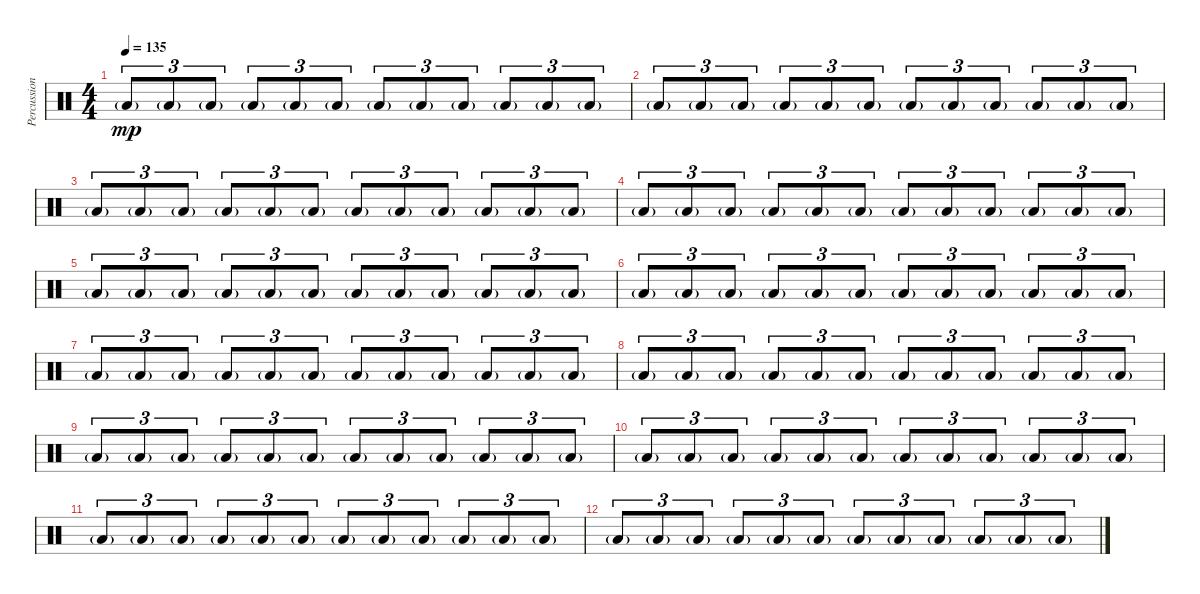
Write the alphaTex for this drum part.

\track ("Percussion" "Percussion") {instrument percussion}
\staff {score}
\articulation defaults
\ts (4 4)
\tempo 135
\clef neutral
\ks c "Low Floor Tom (hit)"{g}.8{tu (3 2) dy mp volume 12} "Low Floor Tom (hit)"{g}.8{tu (3 2)} "Low Floor Tom (hit)"{g}.8{tu (3 2)} "Low Floor Tom (hit)"{g}.8{tu (3 2)} "Low Floor Tom (hit)"{g}.8{tu (3 2)} "Low Floor Tom (hit)"{g}.8{tu (3 2)} "Low Floor Tom (hit)"{g}.8{tu (3 2)} "Low Floor Tom (hit)"{g}.8{tu (3 2)} "Low Floor Tom (hit)"{g}.8{tu (3 2)} "Low Floor Tom (hit)"{g}.8{tu (3 2)} "Low Floor Tom (hit)"{g}.8{tu (3 2)} "Low Floor Tom (hit)"{g}.8{tu (3 2)}
|
"Low Floor Tom (hit)"{g}.8{tu (3 2)} "Low Floor Tom (hit)"{g}.8{tu (3 2)} "Low Floor Tom (hit)"{g}.8{tu (3 2)} "Low Floor Tom (hit)"{g}.8{tu (3 2)} "Low Floor Tom (hit)"{g}.8{tu (3 2)} "Low Floor Tom (hit)"{g}.8{tu (3 2)} "Low Floor Tom (hit)"{g}.8{tu (3 2)} "Low Floor Tom (hit)"{g}.8{tu (3 2)} "Low Floor Tom (hit)"{g}.8{tu (3 2)} "Low Floor Tom (hit)"{g}.8{tu (3 2)} "Low Floor Tom (hit)"{g}.8{tu (3 2)} "Low Floor Tom (hit)"{g}.8{tu (3 2)} |
"Low Floor Tom (hit)"{g}.8{tu (3 2) volume 10} "Low Floor Tom (hit)"{g}.8{tu (3 2)} "Low Floor Tom (hit)"{g}.8{tu (3 2)} "Low Floor Tom (hit)"{g}.8{tu (3 2)} "Low Floor Tom (hit)"{g}.8{tu (3 2)} "Low Floor Tom (hit)"{g}.8{tu (3 2)} "Low Floor Tom (hit)"{g}.8{tu (3 2)} "Low Floor Tom (hit)"{g}.8{tu (3 2)} "Low Floor Tom (hit)"{g}.8{tu (3 2)} "Low Floor Tom (hit)"{g}.8{tu (3 2)} "Low Floor Tom (hit)"{g}.8{tu (3 2)} "Low Floor Tom (hit)"{g}.8{tu (3 2)} |
"Low Floor Tom (hit)"{g}.8{tu (3 2)} "Low Floor Tom (hit)"{g}.8{tu (3 2)} "Low Floor Tom (hit)"{g}.8{tu (3 2)} "Low Floor Tom (hit)"{g}.8{tu (3 2)} "Low Floor Tom (hit)"{g}.8{tu (3 2)} "Low Floor Tom (hit)"{g}.8{tu (3 2)} "Low Floor Tom (hit)"{g}.8{tu (3 2)} "Low Floor Tom (hit)"{g}.8{tu (3 2)} "Low Floor Tom (hit)"{g}.8{tu (3 2)} "Low Floor Tom (hit)"{g}.8{tu (3 2)} "Low Floor Tom (hit)"{g}.8{tu (3 2)} "Low Floor Tom (hit)"{g}.8{tu (3 2)} |
"Low Floor Tom (hit)"{g}.8{tu (3 2) volume 8} "Low Floor Tom (hit)"{g}.8{tu (3 2)} "Low Floor Tom (hit)"{g}.8{tu (3 2)} "Low Floor Tom (hit)"{g}.8{tu (3 2)} "Low Floor Tom (hit)"{g}.8{tu (3 2)} "Low Floor Tom (hit)"{g}.8{tu (3 2)} "Low Floor Tom (hit)"{g}.8{tu (3 2)} "Low Floor Tom (hit)"{g}.8{tu (3 2)} "Low Floor Tom (hit)"{g}.8{tu (3 2)} "Low Floor Tom (hit)"{g}.8{tu (3 2)} "Low Floor Tom (hit)"{g}.8{tu (3 2)} "Low Floor Tom (hit)"{g}.8{tu (3 2)} |
"Low Floor Tom (hit)"{g}.8{tu (3 2)} "Low Floor Tom (hit)"{g}.8{tu (3 2)} "Low Floor Tom (hit)"{g}.8{tu (3 2)} "Low Floor Tom (hit)"{g}.8{tu (3 2)} "Low Floor Tom (hit)"{g}.8{tu (3 2)} "Low Floor Tom (hit)"{g}.8{tu (3 2)} "Low Floor Tom (hit)"{g}.8{tu (3 2)} "Low Floor Tom (hit)"{g}.8{tu (3 2)} "Low Floor Tom (hit)"{g}.8{tu (3 2)} "Low Floor Tom (hit)"{g}.8{tu (3 2)} "Low Floor Tom (hit)"{g}.8{tu (3 2)} "Low Floor Tom (hit)"{g}.8{tu (3 2)} |
"Low Floor Tom (hit)"{g}.8{tu (3 2) volume 6} "Low Floor Tom (hit)"{g}.8{tu (3 2)} "Low Floor Tom (hit)"{g}.8{tu (3 2)} "Low Floor Tom (hit)"{g}.8{tu (3 2)} "Low Floor Tom (hit)"{g}.8{tu (3 2)} "Low Floor Tom (hit)"{g}.8{tu (3 2)} "Low Floor Tom (hit)"{g}.8{tu (3 2)} "Low Floor Tom (hit)"{g}.8{tu (3 2)} "Low Floor Tom (hit)"{g}.8{tu (3 2)} "Low Floor Tom (hit)"{g}.8{tu (3 2)} "Low Floor Tom (hit)"{g}.8{tu (3 2)} "Low Floor Tom (hit)"{g}.8{tu (3 2)} |
"Low Floor Tom (hit)"{g}.8{tu (3 2)} "Low Floor Tom (hit)"{g}.8{tu (3 2)} "Low Floor Tom (hit)"{g}.8{tu (3 2)} "Low Floor Tom (hit)"{g}.8{tu (3 2)} "Low Floor Tom (hit)"{g}.8{tu (3 2)} "Low Floor Tom (hit)"{g}.8{tu (3 2)} "Low Floor Tom (hit)"{g}.8{tu (3 2)} "Low Floor Tom (hit)"{g}.8{tu (3 2)} "Low Floor Tom (hit)"{g}.8{tu (3 2)} "Low Floor Tom (hit)"{g}.8{tu (3 2)} "Low Floor Tom (hit)"{g}.8{tu (3 2)} "Low Floor Tom (hit)"{g}.8{tu (3 2)} |
"Low Floor Tom (hit)"{g}.8{tu (3 2) volume 5} "Low Floor Tom (hit)"{g}.8{tu (3 2)} "Low Floor Tom (hit)"{g}.8{tu (3 2)} "Low Floor Tom (hit)"{g}.8{tu (3 2)} "Low Floor Tom (hit)"{g}.8{tu (3 2)} "Low Floor Tom (hit)"{g}.8{tu (3 2)} "Low Floor Tom (hit)"{g}.8{tu (3 2)} "Low Floor Tom (hit)"{g}.8{tu (3 2)} "Low Floor Tom (hit)"{g}.8{tu (3 2)} "Low Floor Tom (hit)"{g}.8{tu (3 2)} "Low Floor Tom (hit)"{g}.8{tu (3 2)} "Low Floor Tom (hit)"{g}.8{tu (3 2)} |
"Low Floor Tom (hit)"{g}.8{tu (3 2)} "Low Floor Tom (hit)"{g}.8{tu (3 2)} "Low Floor Tom (hit)"{g}.8{tu (3 2)} "Low Floor Tom (hit)"{g}.8{tu (3 2)} "Low Floor Tom (hit)"{g}.8{tu (3 2)} "Low Floor Tom (hit)"{g}.8{tu (3 2)} "Low Floor Tom (hit)"{g}.8{tu (3 2)} "Low Floor Tom (hit)"{g}.8{tu (3 2)} "Low Floor Tom (hit)"{g}.8{tu (3 2)} "Low Floor Tom (hit)"{g}.8{tu (3 2)} "Low Floor Tom (hit)"{g}.8{tu (3 2)} "Low Floor Tom (hit)"{g}.8{tu (3 2)} |
"Low Floor Tom (hit)"{g}.8{tu (3 2) volume 0} "Low Floor Tom (hit)"{g}.8{tu (3 2)} "Low Floor Tom (hit)"{g}.8{tu (3 2)} "Low Floor Tom (hit)"{g}.8{tu (3 2)} "Low Floor Tom (hit)"{g}.8{tu (3 2)} "Low Floor Tom (hit)"{g}.8{tu (3 2)} "Low Floor Tom (hit)"{g}.8{tu (3 2)} "Low Floor Tom (hit)"{g}.8{tu (3 2)} "Low Floor Tom (hit)"{g}.8{tu (3 2)} "Low Floor Tom (hit)"{g}.8{tu (3 2)} "Low Floor Tom (hit)"{g}.8{tu (3 2)} "Low Floor Tom (hit)"{g}.8{tu (3 2)} |
"Low Floor Tom (hit)"{g}.8{tu (3 2)} "Low Floor Tom (hit)"{g}.8{tu (3 2)} "Low Floor Tom (hit)"{g}.8{tu (3 2)} "Low Floor Tom (hit)"{g}.8{tu (3 2)} "Low Floor Tom (hit)"{g}.8{tu (3 2)} "Low Floor Tom (hit)"{g}.8{tu (3 2)} "Low Floor Tom (hit)"{g}.8{tu (3 2)} "Low Floor Tom (hit)"{g}.8{tu (3 2)} "Low Floor Tom (hit)"{g}.8{tu (3 2)} "Low Floor Tom (hit)"{g}.8{tu (3 2)} "Low Floor Tom (hit)"{g}.8{tu (3 2)} "Low Floor Tom (hit)"{g}.8{tu (3 2)}
